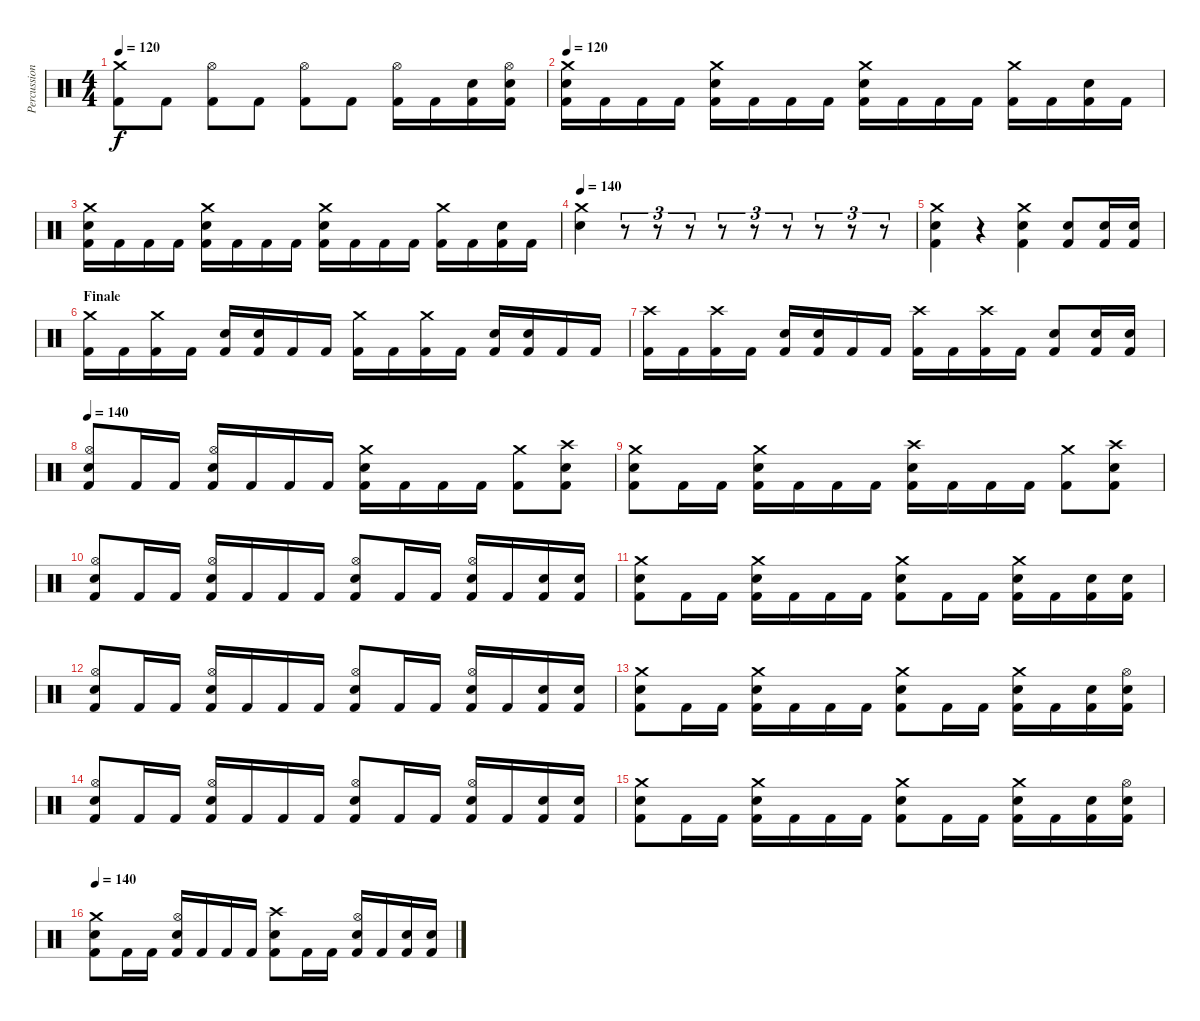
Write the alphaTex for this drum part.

\track ("Percussion" "Percussion") {instrument percussion}
\staff {score}
\articulation defaults
\ts (4 4)
\tempo 120
\clef neutral
\ks c
("Crash medium (hit)" "Kick (hit) 2").8{dy f} "Kick (hit) 2".8 ("Hi-Hat (open)" "Kick (hit) 2").8 "Kick (hit) 2".8 ("Hi-Hat (open)" "Kick (hit) 2").8 "Kick (hit) 2".8 ("Hi-Hat (open)" "Kick (hit) 2").16 "Kick (hit) 2".16 ("Snare (hit) 2" "Kick (hit) 2").16 ("Hi-Hat (open)" "Snare (hit) 2" "Kick (hit) 2").16 |
\tempo 120
("Crash medium (hit)" "Snare (hit) 2" "Kick (hit) 2").16 "Kick (hit) 2".16 "Kick (hit) 2".16 "Kick (hit) 2".16 ("Crash medium (hit)" "Snare (hit) 2" "Kick (hit) 2").16 "Kick (hit) 2".16 "Kick (hit) 2".16 "Kick (hit) 2".16 ("Crash medium (hit)" "Snare (hit) 2" "Kick (hit) 2").16 "Kick (hit) 2".16 "Kick (hit) 2".16 "Kick (hit) 2".16 ("Crash medium (hit)" "Kick (hit) 2").16 "Kick (hit) 2".16 ("Snare (hit) 2" "Kick (hit) 2").16 "Kick (hit) 2".16 |
("Crash medium (hit)" "Snare (hit) 2" "Kick (hit) 2").16 "Kick (hit) 2".16 "Kick (hit) 2".16 "Kick (hit) 2".16 ("Crash medium (hit)" "Snare (hit) 2" "Kick (hit) 2").16 "Kick (hit) 2".16 "Kick (hit) 2".16 "Kick (hit) 2".16 ("Crash medium (hit)" "Snare (hit) 2" "Kick (hit) 2").16 "Kick (hit) 2".16 "Kick (hit) 2".16 "Kick (hit) 2".16 ("Crash medium (hit)" "Kick (hit) 2").16 "Kick (hit) 2".16 ("Snare (hit) 2" "Kick (hit) 2").16 "Kick (hit) 2".16 |
\tempo 140
("Crash medium (hit)" "Snare (hit) 2").4 r.8{tu (3 2)} r.8{tu (3 2)} r.8{tu (3 2)} r.8{tu (3 2)} r.8{tu (3 2)} r.8{tu (3 2)} r.8{tu (3 2)} r.8{tu (3 2)} r.8{tu (3 2)} |
("Crash medium (hit)" "Snare (hit) 2" "Kick (hit) 2").4 r.4 ("Crash medium (hit)" "Snare (hit) 2" "Kick (hit) 2").4 ("Snare (hit) 2" "Kick (hit) 2").8 ("Snare (hit) 2" "Kick (hit) 2").16 ("Snare (hit) 2" "Kick (hit) 2").16 |
\section ("" "Finale")
("Crash medium (hit)" "Kick (hit) 2").16 "Kick (hit) 2".16 ("Crash medium (hit)" "Kick (hit) 2").16 "Kick (hit) 2".16 ("Snare (hit) 2" "Kick (hit) 2").16 ("Snare (hit) 2" "Kick (hit) 2").16 "Kick (hit) 2".16 "Kick (hit) 2".16 ("Crash medium (hit)" "Kick (hit) 2").16 "Kick (hit) 2".16 ("Crash medium (hit)" "Kick (hit) 2").16 "Kick (hit) 2".16 ("Snare (hit) 2" "Kick (hit) 2").16 ("Snare (hit) 2" "Kick (hit) 2").16 "Kick (hit) 2".16 "Kick (hit) 2".16 |
("Crash high (hit)" "Kick (hit) 2").16 "Kick (hit) 2".16 ("Crash high (hit)" "Kick (hit) 2").16 "Kick (hit) 2".16 ("Snare (hit) 2" "Kick (hit) 2").16 ("Snare (hit) 2" "Kick (hit) 2").16 "Kick (hit) 2".16 "Kick (hit) 2".16 ("Crash high (hit)" "Kick (hit) 2").16 "Kick (hit) 2".16 ("Crash high (hit)" "Kick (hit) 2").16 "Kick (hit) 2".16 ("Snare (hit) 2" "Kick (hit) 2").8 ("Snare (hit) 2" "Kick (hit) 2").16 ("Snare (hit) 2" "Kick (hit) 2").16 |
\tempo 140
("Hi-Hat (open)" "Snare (hit) 2" "Kick (hit) 2").8 "Kick (hit) 2".16 "Kick (hit) 2".16 ("Hi-Hat (open)" "Snare (hit) 2" "Kick (hit) 2").16 "Kick (hit) 2".16 "Kick (hit) 2".16 "Kick (hit) 2".16 ("Crash medium (hit)" "Snare (hit) 2" "Kick (hit) 2").16 "Kick (hit) 2".16 "Kick (hit) 2".16 "Kick (hit) 2".16 ("Crash medium (hit)" "Kick (hit) 2").8 ("Crash high (hit)" "Snare (hit) 2" "Kick (hit) 2").8 |
("Crash medium (hit)" "Snare (hit) 2" "Kick (hit) 2").8 "Kick (hit) 2".16 "Kick (hit) 2".16 ("Crash medium (hit)" "Snare (hit) 2" "Kick (hit) 2").16 "Kick (hit) 2".16 "Kick (hit) 2".16 "Kick (hit) 2".16 ("Crash high (hit)" "Snare (hit) 2" "Kick (hit) 2").16 "Kick (hit) 2".16 "Kick (hit) 2".16 "Kick (hit) 2".16 ("Crash medium (hit)" "Kick (hit) 2").8 ("Crash high (hit)" "Snare (hit) 2" "Kick (hit) 2").8 |
("Hi-Hat (open)" "Snare (hit) 2" "Kick (hit) 2").8 "Kick (hit) 2".16 "Kick (hit) 2".16 ("Hi-Hat (open)" "Snare (hit) 2" "Kick (hit) 2").16 "Kick (hit) 2".16 "Kick (hit) 2".16 "Kick (hit) 2".16 ("Hi-Hat (open)" "Snare (hit) 2" "Kick (hit) 2").8 "Kick (hit) 2".16 "Kick (hit) 2".16 ("Hi-Hat (open)" "Snare (hit) 2" "Kick (hit) 2").16 "Kick (hit) 2".16 ("Snare (hit) 2" "Kick (hit) 2").16 ("Snare (hit) 2" "Kick (hit) 2").16 |
("Crash medium (hit)" "Snare (hit) 2" "Kick (hit) 2").8 "Kick (hit) 2".16 "Kick (hit) 2".16 ("Crash medium (hit)" "Snare (hit) 2" "Kick (hit) 2").16 "Kick (hit) 2".16 "Kick (hit) 2".16 "Kick (hit) 2".16 ("Crash medium (hit)" "Snare (hit) 2" "Kick (hit) 2").8 "Kick (hit) 2".16 "Kick (hit) 2".16 ("Crash medium (hit)" "Snare (hit) 2" "Kick (hit) 2").16 "Kick (hit) 2".16 ("Snare (hit) 2" "Kick (hit) 2").16 ("Snare (hit) 2" "Kick (hit) 2").16 |
("Hi-Hat (open)" "Snare (hit) 2" "Kick (hit) 2").8 "Kick (hit) 2".16 "Kick (hit) 2".16 ("Hi-Hat (open)" "Snare (hit) 2" "Kick (hit) 2").16 "Kick (hit) 2".16 "Kick (hit) 2".16 "Kick (hit) 2".16 ("Hi-Hat (open)" "Snare (hit) 2" "Kick (hit) 2").8 "Kick (hit) 2".16 "Kick (hit) 2".16 ("Hi-Hat (open)" "Snare (hit) 2" "Kick (hit) 2").16 "Kick (hit) 2".16 ("Snare (hit) 2" "Kick (hit) 2").16 ("Snare (hit) 2" "Kick (hit) 2").16 |
("Crash medium (hit)" "Snare (hit) 2" "Kick (hit) 2").8 "Kick (hit) 2".16 "Kick (hit) 2".16 ("Crash medium (hit)" "Snare (hit) 2" "Kick (hit) 2").16 "Kick (hit) 2".16 "Kick (hit) 2".16 "Kick (hit) 2".16 ("Crash medium (hit)" "Snare (hit) 2" "Kick (hit) 2").8 "Kick (hit) 2".16 "Kick (hit) 2".16 ("Crash medium (hit)" "Snare (hit) 2" "Kick (hit) 2").16 "Kick (hit) 2".16 ("Snare (hit) 2" "Kick (hit) 2").16 ("Hi-Hat (open)" "Snare (hit) 2" "Kick (hit) 2").16 |
("Hi-Hat (open)" "Snare (hit) 2" "Kick (hit) 2").8 "Kick (hit) 2".16 "Kick (hit) 2".16 ("Hi-Hat (open)" "Snare (hit) 2" "Kick (hit) 2").16 "Kick (hit) 2".16 "Kick (hit) 2".16 "Kick (hit) 2".16 ("Hi-Hat (open)" "Snare (hit) 2" "Kick (hit) 2").8 "Kick (hit) 2".16 "Kick (hit) 2".16 ("Hi-Hat (open)" "Snare (hit) 2" "Kick (hit) 2").16 "Kick (hit) 2".16 ("Snare (hit) 2" "Kick (hit) 2").16 ("Snare (hit) 2" "Kick (hit) 2").16 |
("Crash medium (hit)" "Snare (hit) 2" "Kick (hit) 2").8 "Kick (hit) 2".16 "Kick (hit) 2".16 ("Crash medium (hit)" "Snare (hit) 2" "Kick (hit) 2").16 "Kick (hit) 2".16 "Kick (hit) 2".16 "Kick (hit) 2".16 ("Crash medium (hit)" "Snare (hit) 2" "Kick (hit) 2").8 "Kick (hit) 2".16 "Kick (hit) 2".16 ("Crash medium (hit)" "Snare (hit) 2" "Kick (hit) 2").16 "Kick (hit) 2".16 ("Snare (hit) 2" "Kick (hit) 2").16 ("Hi-Hat (open)" "Snare (hit) 2" "Kick (hit) 2").16 |
\tempo 140
("Crash medium (hit)" "Snare (hit) 2" "Kick (hit) 2").8 "Kick (hit) 2".16 "Kick (hit) 2".16 ("Hi-Hat (open)" "Snare (hit) 2" "Kick (hit) 2").16 "Kick (hit) 2".16 "Kick (hit) 2".16 "Kick (hit) 2".16 ("Crash high (hit)" "Snare (hit) 2" "Kick (hit) 2").8 "Kick (hit) 2".16 "Kick (hit) 2".16 ("Hi-Hat (open)" "Snare (hit) 2" "Kick (hit) 2").16 "Kick (hit) 2".16 ("Snare (hit) 2" "Kick (hit) 2").16 ("Snare (hit) 2" "Kick (hit) 2").16
